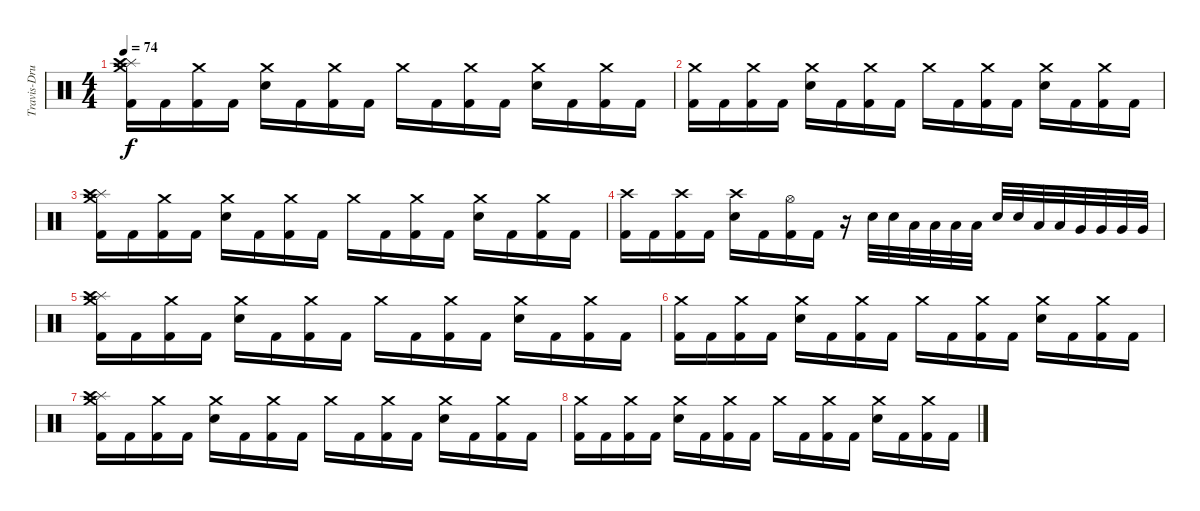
\track ("Travis-Drums" "Travis-Dru") {instrument percussion}
\staff {score}
\articulation defaults
\ts (4 4)
\tempo 74
\clef neutral
\ks c
("Splash (hit)" "Crash high (hit)" "Crash medium (hit)" "Kick (hit) 2").16{dy f} "Kick (hit) 2".16 ("Crash medium (hit)" "Kick (hit) 2").16 "Kick (hit) 2".16 ("Crash medium (hit)" "Snare (hit) 2").16 "Kick (hit) 2".16 ("Crash medium (hit)" "Kick (hit) 2").16 "Kick (hit) 2".16 "Crash medium (hit)".16 "Kick (hit) 2".16 ("Crash medium (hit)" "Kick (hit) 2").16 "Kick (hit) 2".16 ("Crash medium (hit)" "Snare (hit) 2").16 "Kick (hit) 2".16 ("Crash medium (hit)" "Kick (hit) 2").16 "Kick (hit) 2".16 |
("Crash medium (hit)" "Kick (hit) 2").16 "Kick (hit) 2".16 ("Crash medium (hit)" "Kick (hit) 2").16 "Kick (hit) 2".16 ("Crash medium (hit)" "Snare (hit) 2").16 "Kick (hit) 2".16 ("Crash medium (hit)" "Kick (hit) 2").16 "Kick (hit) 2".16 "Crash medium (hit)".16 "Kick (hit) 2".16 ("Crash medium (hit)" "Kick (hit) 2").16 "Kick (hit) 2".16 ("Crash medium (hit)" "Snare (hit) 2").16 "Kick (hit) 2".16 ("Crash medium (hit)" "Kick (hit) 2").16 "Kick (hit) 2".16 |
("Splash (hit)" "Crash high (hit)" "Crash medium (hit)" "Kick (hit) 2").16 "Kick (hit) 2".16 ("Crash medium (hit)" "Kick (hit) 2").16 "Kick (hit) 2".16 ("Crash medium (hit)" "Snare (hit) 2").16 "Kick (hit) 2".16 ("Crash medium (hit)" "Kick (hit) 2").16 "Kick (hit) 2".16 "Crash medium (hit)".16 "Kick (hit) 2".16 ("Crash medium (hit)" "Kick (hit) 2").16 "Kick (hit) 2".16 ("Crash medium (hit)" "Snare (hit) 2").16 "Kick (hit) 2".16 ("Crash medium (hit)" "Kick (hit) 2").16 "Kick (hit) 2".16 |
("Crash high (hit)" "Kick (hit) 2").16 "Kick (hit) 2".16 ("Crash high (hit)" "Kick (hit) 2").16 "Kick (hit) 2".16 ("Crash high (hit)" "Electric Snare (hit)").16 "Kick (hit) 2".16 ("Hi-Hat (open)" "Kick (hit) 2").16 "Kick (hit) 2".16 r.16 "Electric Snare (hit)".32 "Electric Snare (hit)".32 "Low Tom (hit)".32 "Low Tom (hit)".32 "Low Tom (hit)".32 "Low Tom (hit)".32 "Electric Snare (hit)".32 "Electric Snare (hit)".32 "Low Tom (hit)".32 "Low Tom (hit)".32 "Very Low Tom (hit)".32 "Very Low Tom (hit)".32 "Very Low Tom (hit)".32 "Very Low Tom (hit)".32 |
("Splash (hit)" "Crash high (hit)" "Crash medium (hit)" "Kick (hit) 2").16 "Kick (hit) 2".16 ("Crash medium (hit)" "Kick (hit) 2").16 "Kick (hit) 2".16 ("Crash medium (hit)" "Snare (hit) 2").16 "Kick (hit) 2".16 ("Crash medium (hit)" "Kick (hit) 2").16 "Kick (hit) 2".16 "Crash medium (hit)".16 "Kick (hit) 2".16 ("Crash medium (hit)" "Kick (hit) 2").16 "Kick (hit) 2".16 ("Crash medium (hit)" "Snare (hit) 2").16 "Kick (hit) 2".16 ("Crash medium (hit)" "Kick (hit) 2").16 "Kick (hit) 2".16 |
("Crash medium (hit)" "Kick (hit) 2").16 "Kick (hit) 2".16 ("Crash medium (hit)" "Kick (hit) 2").16 "Kick (hit) 2".16 ("Crash medium (hit)" "Snare (hit) 2").16 "Kick (hit) 2".16 ("Crash medium (hit)" "Kick (hit) 2").16 "Kick (hit) 2".16 "Crash medium (hit)".16 "Kick (hit) 2".16 ("Crash medium (hit)" "Kick (hit) 2").16 "Kick (hit) 2".16 ("Crash medium (hit)" "Snare (hit) 2").16 "Kick (hit) 2".16 ("Crash medium (hit)" "Kick (hit) 2").16 "Kick (hit) 2".16 |
("Splash (hit)" "Crash high (hit)" "Crash medium (hit)" "Kick (hit) 2").16 "Kick (hit) 2".16 ("Crash medium (hit)" "Kick (hit) 2").16 "Kick (hit) 2".16 ("Crash medium (hit)" "Snare (hit) 2").16 "Kick (hit) 2".16 ("Crash medium (hit)" "Kick (hit) 2").16 "Kick (hit) 2".16 "Crash medium (hit)".16 "Kick (hit) 2".16 ("Crash medium (hit)" "Kick (hit) 2").16 "Kick (hit) 2".16 ("Crash medium (hit)" "Snare (hit) 2").16 "Kick (hit) 2".16 ("Crash medium (hit)" "Kick (hit) 2").16 "Kick (hit) 2".16 |
("Crash medium (hit)" "Kick (hit) 2").16 "Kick (hit) 2".16 ("Crash medium (hit)" "Kick (hit) 2").16 "Kick (hit) 2".16 ("Crash medium (hit)" "Snare (hit) 2").16 "Kick (hit) 2".16 ("Crash medium (hit)" "Kick (hit) 2").16 "Kick (hit) 2".16 "Crash medium (hit)".16 "Kick (hit) 2".16 ("Crash medium (hit)" "Kick (hit) 2").16 "Kick (hit) 2".16 ("Crash medium (hit)" "Snare (hit) 2").16 "Kick (hit) 2".16 ("Crash medium (hit)" "Kick (hit) 2").16 "Kick (hit) 2".16
